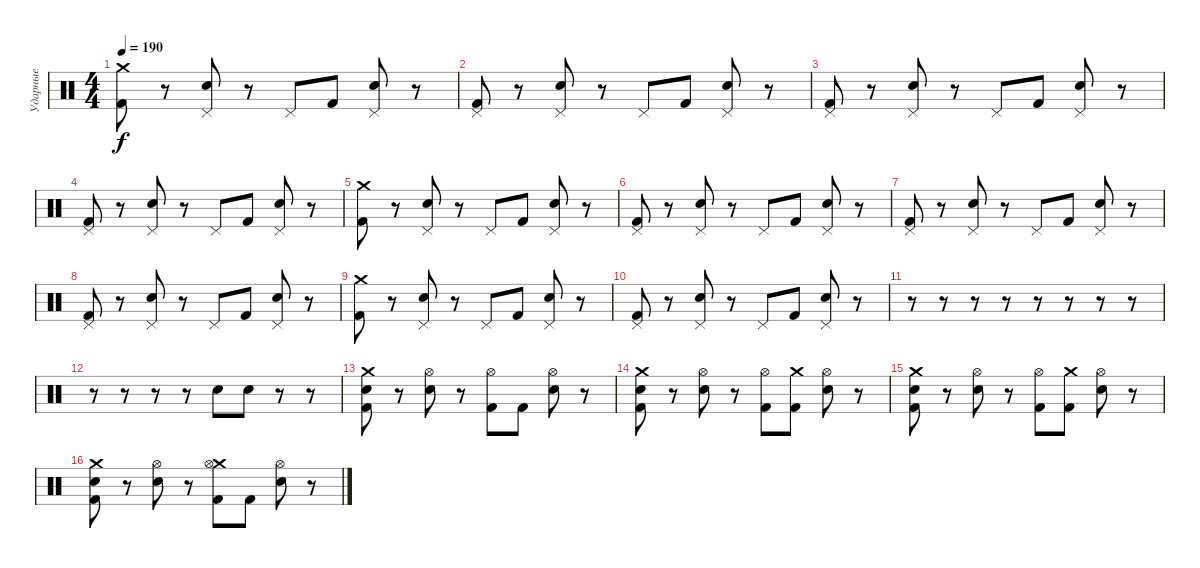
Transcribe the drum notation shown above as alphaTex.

\track ("Ударные" "Ударные") {instrument percussion}
\staff {score}
\articulation defaults
\ts (4 4)
\tempo 190
\clef neutral
\ks c
("Crash medium (hit)" "Kick (hit) 2").8{dy f} r.8 ("Pedal Hi-Hat (hit)" "Electric Snare (hit)").8 r.8 "Pedal Hi-Hat (hit)".8 "Kick (hit) 2".8 ("Pedal Hi-Hat (hit)" "Electric Snare (hit)").8 r.8 |
("Pedal Hi-Hat (hit)" "Kick (hit) 2").8 r.8 ("Pedal Hi-Hat (hit)" "Electric Snare (hit)").8 r.8 "Pedal Hi-Hat (hit)".8 "Kick (hit) 2".8 ("Pedal Hi-Hat (hit)" "Electric Snare (hit)").8 r.8 |
("Pedal Hi-Hat (hit)" "Kick (hit) 2").8 r.8 ("Pedal Hi-Hat (hit)" "Electric Snare (hit)").8 r.8 "Pedal Hi-Hat (hit)".8 "Kick (hit) 2".8 ("Pedal Hi-Hat (hit)" "Electric Snare (hit)").8 r.8 |
("Pedal Hi-Hat (hit)" "Kick (hit) 2").8 r.8 ("Pedal Hi-Hat (hit)" "Electric Snare (hit)").8 r.8 "Pedal Hi-Hat (hit)".8 "Kick (hit) 2".8 ("Pedal Hi-Hat (hit)" "Electric Snare (hit)").8 r.8 |
("Crash medium (hit)" "Kick (hit) 2").8 r.8 ("Pedal Hi-Hat (hit)" "Electric Snare (hit)").8 r.8 "Pedal Hi-Hat (hit)".8 "Kick (hit) 2".8 ("Pedal Hi-Hat (hit)" "Electric Snare (hit)").8 r.8 |
("Pedal Hi-Hat (hit)" "Kick (hit) 2").8 r.8 ("Pedal Hi-Hat (hit)" "Electric Snare (hit)").8 r.8 "Pedal Hi-Hat (hit)".8 "Kick (hit) 2".8 ("Pedal Hi-Hat (hit)" "Electric Snare (hit)").8 r.8 |
("Pedal Hi-Hat (hit)" "Kick (hit) 2").8 r.8 ("Pedal Hi-Hat (hit)" "Electric Snare (hit)").8 r.8 "Pedal Hi-Hat (hit)".8 "Kick (hit) 2".8 ("Pedal Hi-Hat (hit)" "Electric Snare (hit)").8 r.8 |
("Pedal Hi-Hat (hit)" "Kick (hit) 2").8 r.8 ("Pedal Hi-Hat (hit)" "Electric Snare (hit)").8 r.8 "Pedal Hi-Hat (hit)".8 "Kick (hit) 2".8 ("Pedal Hi-Hat (hit)" "Electric Snare (hit)").8 r.8 |
("Crash medium (hit)" "Kick (hit) 2").8 r.8 ("Pedal Hi-Hat (hit)" "Electric Snare (hit)").8 r.8 "Pedal Hi-Hat (hit)".8 "Kick (hit) 2".8 ("Pedal Hi-Hat (hit)" "Electric Snare (hit)").8 r.8 |
("Pedal Hi-Hat (hit)" "Kick (hit) 2").8 r.8 ("Pedal Hi-Hat (hit)" "Electric Snare (hit)").8 r.8 "Pedal Hi-Hat (hit)".8 "Kick (hit) 2".8 ("Pedal Hi-Hat (hit)" "Electric Snare (hit)").8 r.8 |
r.8 r.8 r.8 r.8 r.8 r.8 r.8 r.8 |
r.8 r.8 r.8 r.8 "Electric Snare (hit)".8 "Electric Snare (hit)".8 r.8 r.8 |
("Crash medium (hit)" "Electric Snare (hit)" "Kick (hit) 2").8 r.8 ("Electric Snare (hit)" "Hi-Hat (open)").8 r.8 ("Kick (hit) 2" "Hi-Hat (open)").8 "Kick (hit) 2".8 ("Electric Snare (hit)" "Hi-Hat (open)").8 r.8 |
("Crash medium (hit)" "Electric Snare (hit)" "Kick (hit) 2").8 r.8 ("Electric Snare (hit)" "Hi-Hat (open)").8 r.8 ("Kick (hit) 2" "Hi-Hat (open)").8 ("Kick (hit) 2" "Crash medium (hit)").8 ("Electric Snare (hit)" "Hi-Hat (open)").8 r.8 |
("Crash medium (hit)" "Electric Snare (hit)" "Kick (hit) 2").8 r.8 ("Electric Snare (hit)" "Hi-Hat (open)").8 r.8 ("Kick (hit) 2" "Hi-Hat (open)").8 ("Kick (hit) 2" "Crash medium (hit)").8 ("Electric Snare (hit)" "Hi-Hat (open)").8 r.8 |
("Crash medium (hit)" "Electric Snare (hit)" "Kick (hit) 2").8 r.8 ("Electric Snare (hit)" "Hi-Hat (open)").8 r.8 ("Kick (hit) 2" "Crash medium (hit)" "Hi-Hat (open)").8 "Kick (hit) 2".8 ("Electric Snare (hit)" "Hi-Hat (open)").8 r.8
